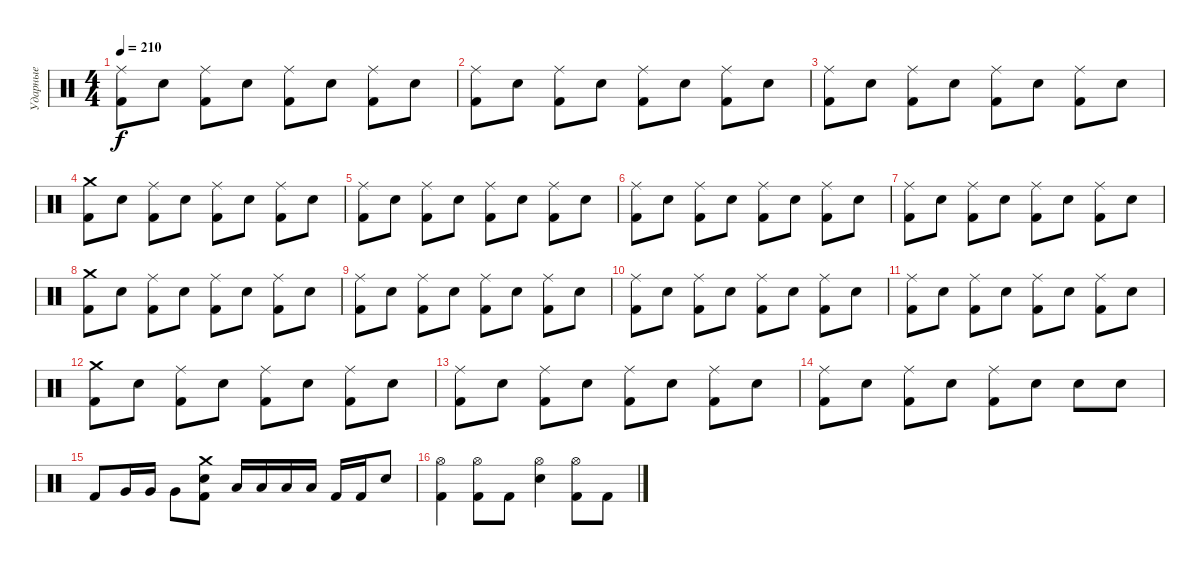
\track ("Ударные" "Ударные") {instrument percussion}
\staff {score}
\articulation defaults
\ts (4 4)
\tempo 210
\clef neutral
\ks c
("Ride (middle)" "Kick (hit) 2").8{dy f} "Snare (hit) 2".8 ("Ride (middle)" "Kick (hit) 2").8 "Snare (hit) 2".8 ("Ride (middle)" "Kick (hit) 2").8 "Snare (hit) 2".8 ("Ride (middle)" "Kick (hit) 2").8 "Snare (hit) 2".8 |
("Ride (middle)" "Kick (hit) 2").8 "Snare (hit) 2".8 ("Ride (middle)" "Kick (hit) 2").8 "Snare (hit) 2".8 ("Ride (middle)" "Kick (hit) 2").8 "Snare (hit) 2".8 ("Ride (middle)" "Kick (hit) 2").8 "Snare (hit) 2".8 |
("Ride (middle)" "Kick (hit) 2").8 "Snare (hit) 2".8 ("Ride (middle)" "Kick (hit) 2").8 "Snare (hit) 2".8 ("Ride (middle)" "Kick (hit) 2").8 "Snare (hit) 2".8 ("Ride (middle)" "Kick (hit) 2").8 "Snare (hit) 2".8 |
("Crash medium (hit)" "Kick (hit) 2").8 "Snare (hit) 2".8 ("Ride (middle)" "Kick (hit) 2").8 "Snare (hit) 2".8 ("Ride (middle)" "Kick (hit) 2").8 "Snare (hit) 2".8 ("Ride (middle)" "Kick (hit) 2").8 "Snare (hit) 2".8 |
("Ride (middle)" "Kick (hit) 2").8 "Snare (hit) 2".8 ("Ride (middle)" "Kick (hit) 2").8 "Snare (hit) 2".8 ("Ride (middle)" "Kick (hit) 2").8 "Snare (hit) 2".8 ("Ride (middle)" "Kick (hit) 2").8 "Snare (hit) 2".8 |
("Ride (middle)" "Kick (hit) 2").8 "Snare (hit) 2".8 ("Ride (middle)" "Kick (hit) 2").8 "Snare (hit) 2".8 ("Ride (middle)" "Kick (hit) 2").8 "Snare (hit) 2".8 ("Ride (middle)" "Kick (hit) 2").8 "Snare (hit) 2".8 |
("Ride (middle)" "Kick (hit) 2").8 "Snare (hit) 2".8 ("Ride (middle)" "Kick (hit) 2").8 "Snare (hit) 2".8 ("Ride (middle)" "Kick (hit) 2").8 "Snare (hit) 2".8 ("Ride (middle)" "Kick (hit) 2").8 "Snare (hit) 2".8 |
("Crash medium (hit)" "Kick (hit) 2").8 "Snare (hit) 2".8 ("Ride (middle)" "Kick (hit) 2").8 "Snare (hit) 2".8 ("Ride (middle)" "Kick (hit) 2").8 "Snare (hit) 2".8 ("Ride (middle)" "Kick (hit) 2").8 "Snare (hit) 2".8 |
("Ride (middle)" "Kick (hit) 2").8 "Snare (hit) 2".8 ("Ride (middle)" "Kick (hit) 2").8 "Snare (hit) 2".8 ("Ride (middle)" "Kick (hit) 2").8 "Snare (hit) 2".8 ("Ride (middle)" "Kick (hit) 2").8 "Snare (hit) 2".8 |
("Ride (middle)" "Kick (hit) 2").8 "Snare (hit) 2".8 ("Ride (middle)" "Kick (hit) 2").8 "Snare (hit) 2".8 ("Ride (middle)" "Kick (hit) 2").8 "Snare (hit) 2".8 ("Ride (middle)" "Kick (hit) 2").8 "Snare (hit) 2".8 |
("Ride (middle)" "Kick (hit) 2").8 "Snare (hit) 2".8 ("Ride (middle)" "Kick (hit) 2").8 "Snare (hit) 2".8 ("Ride (middle)" "Kick (hit) 2").8 "Snare (hit) 2".8 ("Ride (middle)" "Kick (hit) 2").8 "Snare (hit) 2".8 |
("Crash medium (hit)" "Kick (hit) 2").8 "Snare (hit) 2".8 ("Ride (middle)" "Kick (hit) 2").8 "Snare (hit) 2".8 ("Ride (middle)" "Kick (hit) 2").8 "Snare (hit) 2".8 ("Ride (middle)" "Kick (hit) 2").8 "Snare (hit) 2".8 |
("Ride (middle)" "Kick (hit) 2").8 "Snare (hit) 2".8 ("Ride (middle)" "Kick (hit) 2").8 "Snare (hit) 2".8 ("Ride (middle)" "Kick (hit) 2").8 "Snare (hit) 2".8 ("Ride (middle)" "Kick (hit) 2").8 "Snare (hit) 2".8 |
("Ride (middle)" "Kick (hit) 2").8 "Snare (hit) 2".8 ("Ride (middle)" "Kick (hit) 2").8 "Snare (hit) 2".8 ("Ride (middle)" "Kick (hit) 2").8 "Snare (hit) 2".8 "Snare (hit) 2".8 "Snare (hit) 2".8 |
"Kick (hit) 2".8 "Very Low Tom (hit)".16 "Very Low Tom (hit)".16 "Very Low Tom (hit)".8 ("Crash medium (hit)" "Snare (hit) 2" "Kick (hit) 2").8 "Low Tom (hit)".16 "Low Tom (hit)".16 "Low Tom (hit)".16 "Low Tom (hit)".16 "Kick (hit) 2".16 "Kick (hit) 2".16 "Snare (hit) 2".8 |
("Hi-Hat (open)" "Kick (hit) 2").4 ("Hi-Hat (open)" "Kick (hit) 2").8 "Kick (hit) 2".8 ("Hi-Hat (open)" "Snare (hit) 2").4 ("Hi-Hat (open)" "Kick (hit) 2").8 "Kick (hit) 2".8
